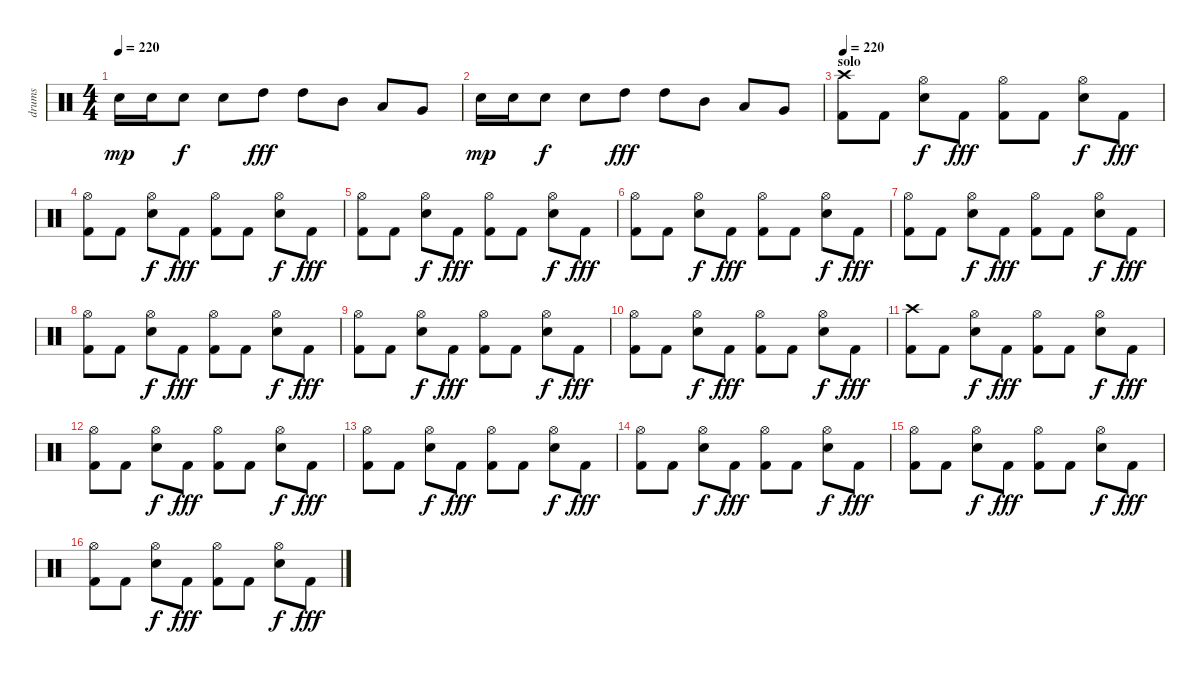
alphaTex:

\track ("drums" "drums") {instrument percussion}
\staff {score}
\articulation defaults
\ts (4 4)
\tempo 220
\clef neutral
\ks c "Snare (hit) 2".16{dy mp} "Snare (hit) 2".16 "Snare (hit) 2".8{dy f} "Snare (hit) 2".8 "High Tom (hit)".8{dy fff} "High Tom (hit)".8 "Mid Tom (hit)".8 "Low Tom (hit)".8 "Very Low Tom (hit)".8
|
"Snare (hit) 2".16{dy mp} "Snare (hit) 2".16 "Snare (hit) 2".8{dy f} "Snare (hit) 2".8 "High Tom (hit)".8{dy fff} "High Tom (hit)".8 "Mid Tom (hit)".8 "Low Tom (hit)".8 "Very Low Tom (hit)".8 |
\section ("" "solo")
\tempo 220
("Crash high (hit)" "Kick (hit) 2").8 "Kick (hit) 2".8 ("Hi-Hat (open)" "Snare (hit) 2").8{dy f} "Kick (hit) 2".8{dy fff} ("Hi-Hat (open)" "Kick (hit) 2").8 "Kick (hit) 2".8 ("Hi-Hat (open)" "Snare (hit) 2").8{dy f} "Kick (hit) 2".8{dy fff} |
("Hi-Hat (open)" "Kick (hit) 2").8 "Kick (hit) 2".8 ("Hi-Hat (open)" "Snare (hit) 2").8{dy f} "Kick (hit) 2".8{dy fff} ("Hi-Hat (open)" "Kick (hit) 2").8 "Kick (hit) 2".8 ("Hi-Hat (open)" "Snare (hit) 2").8{dy f} "Kick (hit) 2".8{dy fff} |
("Hi-Hat (open)" "Kick (hit) 2").8 "Kick (hit) 2".8 ("Hi-Hat (open)" "Snare (hit) 2").8{dy f} "Kick (hit) 2".8{dy fff} ("Hi-Hat (open)" "Kick (hit) 2").8 "Kick (hit) 2".8 ("Hi-Hat (open)" "Snare (hit) 2").8{dy f} "Kick (hit) 2".8{dy fff} |
("Hi-Hat (open)" "Kick (hit) 2").8 "Kick (hit) 2".8 ("Hi-Hat (open)" "Snare (hit) 2").8{dy f} "Kick (hit) 2".8{dy fff} ("Hi-Hat (open)" "Kick (hit) 2").8 "Kick (hit) 2".8 ("Hi-Hat (open)" "Snare (hit) 2").8{dy f} "Kick (hit) 2".8{dy fff} |
("Hi-Hat (open)" "Kick (hit) 2").8 "Kick (hit) 2".8 ("Hi-Hat (open)" "Snare (hit) 2").8{dy f} "Kick (hit) 2".8{dy fff} ("Hi-Hat (open)" "Kick (hit) 2").8 "Kick (hit) 2".8 ("Hi-Hat (open)" "Snare (hit) 2").8{dy f} "Kick (hit) 2".8{dy fff} |
("Hi-Hat (open)" "Kick (hit) 2").8 "Kick (hit) 2".8 ("Hi-Hat (open)" "Snare (hit) 2").8{dy f} "Kick (hit) 2".8{dy fff} ("Hi-Hat (open)" "Kick (hit) 2").8 "Kick (hit) 2".8 ("Hi-Hat (open)" "Snare (hit) 2").8{dy f} "Kick (hit) 2".8{dy fff} |
("Hi-Hat (open)" "Kick (hit) 2").8 "Kick (hit) 2".8 ("Hi-Hat (open)" "Snare (hit) 2").8{dy f} "Kick (hit) 2".8{dy fff} ("Hi-Hat (open)" "Kick (hit) 2").8 "Kick (hit) 2".8 ("Hi-Hat (open)" "Snare (hit) 2").8{dy f} "Kick (hit) 2".8{dy fff} |
("Hi-Hat (open)" "Kick (hit) 2").8 "Kick (hit) 2".8 ("Hi-Hat (open)" "Snare (hit) 2").8{dy f} "Kick (hit) 2".8{dy fff} ("Hi-Hat (open)" "Kick (hit) 2").8 "Kick (hit) 2".8 ("Hi-Hat (open)" "Snare (hit) 2").8{dy f} "Kick (hit) 2".8{dy fff} |
("Crash high (hit)" "Kick (hit) 2").8 "Kick (hit) 2".8 ("Hi-Hat (open)" "Snare (hit) 2").8{dy f} "Kick (hit) 2".8{dy fff} ("Hi-Hat (open)" "Kick (hit) 2").8 "Kick (hit) 2".8 ("Hi-Hat (open)" "Snare (hit) 2").8{dy f} "Kick (hit) 2".8{dy fff} |
("Hi-Hat (open)" "Kick (hit) 2").8 "Kick (hit) 2".8 ("Hi-Hat (open)" "Snare (hit) 2").8{dy f} "Kick (hit) 2".8{dy fff} ("Hi-Hat (open)" "Kick (hit) 2").8 "Kick (hit) 2".8 ("Hi-Hat (open)" "Snare (hit) 2").8{dy f} "Kick (hit) 2".8{dy fff} |
("Hi-Hat (open)" "Kick (hit) 2").8 "Kick (hit) 2".8 ("Hi-Hat (open)" "Snare (hit) 2").8{dy f} "Kick (hit) 2".8{dy fff} ("Hi-Hat (open)" "Kick (hit) 2").8 "Kick (hit) 2".8 ("Hi-Hat (open)" "Snare (hit) 2").8{dy f} "Kick (hit) 2".8{dy fff} |
("Hi-Hat (open)" "Kick (hit) 2").8 "Kick (hit) 2".8 ("Hi-Hat (open)" "Snare (hit) 2").8{dy f} "Kick (hit) 2".8{dy fff} ("Hi-Hat (open)" "Kick (hit) 2").8 "Kick (hit) 2".8 ("Hi-Hat (open)" "Snare (hit) 2").8{dy f} "Kick (hit) 2".8{dy fff} |
("Hi-Hat (open)" "Kick (hit) 2").8 "Kick (hit) 2".8 ("Hi-Hat (open)" "Snare (hit) 2").8{dy f} "Kick (hit) 2".8{dy fff} ("Hi-Hat (open)" "Kick (hit) 2").8 "Kick (hit) 2".8 ("Hi-Hat (open)" "Snare (hit) 2").8{dy f} "Kick (hit) 2".8{dy fff} |
("Hi-Hat (open)" "Kick (hit) 2").8 "Kick (hit) 2".8 ("Hi-Hat (open)" "Snare (hit) 2").8{dy f} "Kick (hit) 2".8{dy fff} ("Hi-Hat (open)" "Kick (hit) 2").8 "Kick (hit) 2".8 ("Hi-Hat (open)" "Snare (hit) 2").8{dy f} "Kick (hit) 2".8{dy fff}
